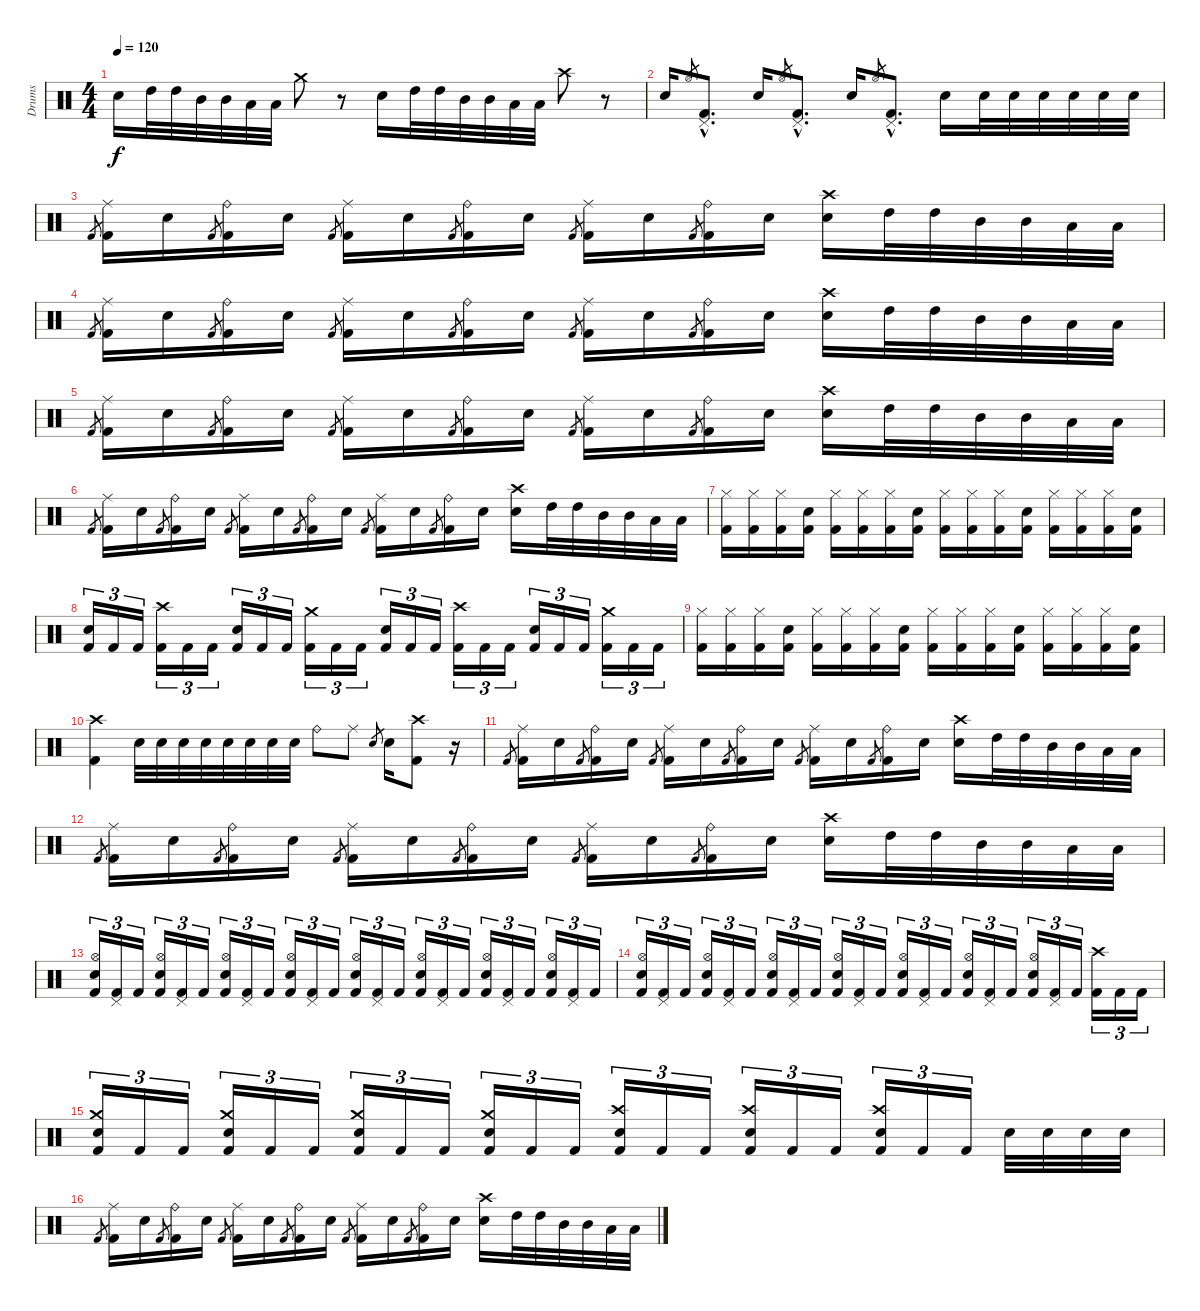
\track ("Drums" "Drums") {instrument percussion}
\staff {score}
\articulation defaults
\ts (4 4)
\tempo 120
\clef neutral
\ks c "Snare (hit) 2".16{dy f} "High Tom (hit)".32 "High Tom (hit)".32 "Mid Tom (hit)".32 "Mid Tom (hit)".32 "Low Tom (hit)".32 "Low Tom (hit)".32 "Crash medium (hit)".8
r.8 "Snare (hit) 2".16 "High Tom (hit)".32 "High Tom (hit)".32 "Mid Tom (hit)".32 "Mid Tom (hit)".32 "Low Tom (hit)".32 "Low Tom (hit)".32 "Crash high (hit)".8 r.8 |
"Snare (hit) 2".16 "Hi-Hat (open)".8{gr} ("Pedal Hi-Hat (hit)"{hac} "Kick (hit) 2"{hac}).8{d} "Snare (hit) 2".16 "Hi-Hat (open)".8{gr} ("Pedal Hi-Hat (hit)"{hac} "Kick (hit) 2"{hac}).8{d} "Snare (hit) 2".16 "Hi-Hat (open)".8{gr} ("Pedal Hi-Hat (hit)"{hac} "Kick (hit) 2"{hac}).8{d} "Snare (hit) 2".16 "Snare (hit) 2".32 "Snare (hit) 2".32 "Snare (hit) 2".32 "Snare (hit) 2".32 "Snare (hit) 2".32 "Snare (hit) 2".32 |
"Kick (hit) 2".8{gr} ("Ride (middle)" "Kick (hit) 2").16 "Snare (hit) 2".16 "Kick (hit) 2".8{gr} ("Ride (bell)" "Kick (hit) 2").16 "Snare (hit) 2".16 "Kick (hit) 2".8{gr} ("Ride (middle)" "Kick (hit) 2").16 "Snare (hit) 2".16 "Kick (hit) 2".8{gr} ("Ride (bell)" "Kick (hit) 2").16 "Snare (hit) 2".16 "Kick (hit) 2".8{gr} ("Ride (middle)" "Kick (hit) 2").16 "Snare (hit) 2".16 "Kick (hit) 2".8{gr} ("Ride (bell)" "Kick (hit) 2").16 "Snare (hit) 2".16 ("Crash high (hit)" "Snare (hit) 2").16 "High Tom (hit)".32 "High Tom (hit)".32 "Mid Tom (hit)".32 "Mid Tom (hit)".32 "Low Tom (hit)".32 "Low Tom (hit)".32 |
"Kick (hit) 2".8{gr} ("Ride (middle)" "Kick (hit) 2").16 "Snare (hit) 2".16 "Kick (hit) 2".8{gr} ("Ride (bell)" "Kick (hit) 2").16 "Snare (hit) 2".16 "Kick (hit) 2".8{gr} ("Ride (middle)" "Kick (hit) 2").16 "Snare (hit) 2".16 "Kick (hit) 2".8{gr} ("Ride (bell)" "Kick (hit) 2").16 "Snare (hit) 2".16 "Kick (hit) 2".8{gr} ("Ride (middle)" "Kick (hit) 2").16 "Snare (hit) 2".16 "Kick (hit) 2".8{gr} ("Ride (bell)" "Kick (hit) 2").16 "Snare (hit) 2".16 ("Crash high (hit)" "Snare (hit) 2").16 "High Tom (hit)".32 "High Tom (hit)".32 "Mid Tom (hit)".32 "Mid Tom (hit)".32 "Low Tom (hit)".32 "Low Tom (hit)".32 |
"Kick (hit) 2".8{gr} ("Ride (middle)" "Kick (hit) 2").16 "Snare (hit) 2".16 "Kick (hit) 2".8{gr} ("Ride (bell)" "Kick (hit) 2").16 "Snare (hit) 2".16 "Kick (hit) 2".8{gr} ("Ride (middle)" "Kick (hit) 2").16 "Snare (hit) 2".16 "Kick (hit) 2".8{gr} ("Ride (bell)" "Kick (hit) 2").16 "Snare (hit) 2".16 "Kick (hit) 2".8{gr} ("Ride (middle)" "Kick (hit) 2").16 "Snare (hit) 2".16 "Kick (hit) 2".8{gr} ("Ride (bell)" "Kick (hit) 2").16 "Snare (hit) 2".16 ("Crash high (hit)" "Snare (hit) 2").16 "High Tom (hit)".32 "High Tom (hit)".32 "Mid Tom (hit)".32 "Mid Tom (hit)".32 "Low Tom (hit)".32 "Low Tom (hit)".32 |
"Kick (hit) 2".8{gr} ("Ride (middle)" "Kick (hit) 2").16 "Snare (hit) 2".16 "Kick (hit) 2".8{gr} ("Ride (bell)" "Kick (hit) 2").16 "Snare (hit) 2".16 "Kick (hit) 2".8{gr} ("Ride (middle)" "Kick (hit) 2").16 "Snare (hit) 2".16 "Kick (hit) 2".8{gr} ("Ride (bell)" "Kick (hit) 2").16 "Snare (hit) 2".16 "Kick (hit) 2".8{gr} ("Ride (middle)" "Kick (hit) 2").16 "Snare (hit) 2".16 "Kick (hit) 2".8{gr} ("Ride (bell)" "Kick (hit) 2").16 "Snare (hit) 2".16 ("Crash high (hit)" "Snare (hit) 2").16 "High Tom (hit)".32 "High Tom (hit)".32 "Mid Tom (hit)".32 "Mid Tom (hit)".32 "Low Tom (hit)".32 "Low Tom (hit)".32 |
("Hi-Hat (closed)" "Kick (hit) 2").16 ("Hi-Hat (closed)" "Kick (hit) 2").16 ("Hi-Hat (closed)" "Kick (hit) 2").16 ("Snare (hit) 2" "Kick (hit) 2").16 ("Hi-Hat (closed)" "Kick (hit) 2").16 ("Hi-Hat (closed)" "Kick (hit) 2").16 ("Hi-Hat (closed)" "Kick (hit) 2").16 ("Snare (hit) 2" "Kick (hit) 2").16 ("Hi-Hat (closed)" "Kick (hit) 2").16 ("Hi-Hat (closed)" "Kick (hit) 2").16 ("Hi-Hat (closed)" "Kick (hit) 2").16 ("Snare (hit) 2" "Kick (hit) 2").16 ("Hi-Hat (closed)" "Kick (hit) 2").16 ("Hi-Hat (closed)" "Kick (hit) 2").16 ("Hi-Hat (closed)" "Kick (hit) 2").16 ("Snare (hit) 2" "Kick (hit) 2").16 |
("Snare (hit) 2" "Kick (hit) 2").16{tu (3 2)} "Kick (hit) 2".16{tu (3 2)} "Kick (hit) 2".16{tu (3 2)} ("Crash high (hit)" "Kick (hit) 2").16{tu (3 2)} "Kick (hit) 2".16{tu (3 2)} "Kick (hit) 2".16{tu (3 2)} ("Snare (hit) 2" "Kick (hit) 2").16{tu (3 2)} "Kick (hit) 2".16{tu (3 2)} "Kick (hit) 2".16{tu (3 2)} ("Crash medium (hit)" "Kick (hit) 2").16{tu (3 2)} "Kick (hit) 2".16{tu (3 2)} "Kick (hit) 2".16{tu (3 2)} ("Snare (hit) 2" "Kick (hit) 2").16{tu (3 2)} "Kick (hit) 2".16{tu (3 2)} "Kick (hit) 2".16{tu (3 2)} ("Crash high (hit)" "Kick (hit) 2").16{tu (3 2)} "Kick (hit) 2".16{tu (3 2)} "Kick (hit) 2".16{tu (3 2)} ("Snare (hit) 2" "Kick (hit) 2").16{tu (3 2)} "Kick (hit) 2".16{tu (3 2)} "Kick (hit) 2".16{tu (3 2)} ("Crash medium (hit)" "Kick (hit) 2").16{tu (3 2)} "Kick (hit) 2".16{tu (3 2)} "Kick (hit) 2".16{tu (3 2)} |
("Hi-Hat (closed)" "Kick (hit) 2").16 ("Hi-Hat (closed)" "Kick (hit) 2").16 ("Hi-Hat (closed)" "Kick (hit) 2").16 ("Snare (hit) 2" "Kick (hit) 2").16 ("Hi-Hat (closed)" "Kick (hit) 2").16 ("Hi-Hat (closed)" "Kick (hit) 2").16 ("Hi-Hat (closed)" "Kick (hit) 2").16 ("Snare (hit) 2" "Kick (hit) 2").16 ("Hi-Hat (closed)" "Kick (hit) 2").16 ("Hi-Hat (closed)" "Kick (hit) 2").16 ("Hi-Hat (closed)" "Kick (hit) 2").16 ("Snare (hit) 2" "Kick (hit) 2").16 ("Hi-Hat (closed)" "Kick (hit) 2").16 ("Hi-Hat (closed)" "Kick (hit) 2").16 ("Hi-Hat (closed)" "Kick (hit) 2").16 ("Snare (hit) 2" "Kick (hit) 2").16 |
("Crash high (hit)" "Kick (hit) 2").4 "Snare (hit) 2".32 "Snare (hit) 2".32 "Snare (hit) 2".32 "Snare (hit) 2".32 "Snare (hit) 2".32 "Snare (hit) 2".32 "Snare (hit) 2".32 "Snare (hit) 2".32 "Ride (bell)".8 "Ride (middle)".8 "Snare (hit) 2".8{gr} "Snare (hit) 2".16 ("Crash high (hit)" "Kick (hit) 2").8 r.16 |
"Kick (hit) 2".8{gr} ("Ride (middle)" "Kick (hit) 2").16 "Snare (hit) 2".16 "Kick (hit) 2".8{gr} ("Ride (bell)" "Kick (hit) 2").16 "Snare (hit) 2".16 "Kick (hit) 2".8{gr} ("Ride (middle)" "Kick (hit) 2").16 "Snare (hit) 2".16 "Kick (hit) 2".8{gr} ("Ride (bell)" "Kick (hit) 2").16 "Snare (hit) 2".16 "Kick (hit) 2".8{gr} ("Ride (middle)" "Kick (hit) 2").16 "Snare (hit) 2".16 "Kick (hit) 2".8{gr} ("Ride (bell)" "Kick (hit) 2").16 "Snare (hit) 2".16 ("Crash high (hit)" "Snare (hit) 2").16 "High Tom (hit)".32 "High Tom (hit)".32 "Mid Tom (hit)".32 "Mid Tom (hit)".32 "Low Tom (hit)".32 "Low Tom (hit)".32 |
"Kick (hit) 2".8{gr} ("Ride (middle)" "Kick (hit) 2").16 "Snare (hit) 2".16 "Kick (hit) 2".8{gr} ("Ride (bell)" "Kick (hit) 2").16 "Snare (hit) 2".16 "Kick (hit) 2".8{gr} ("Ride (middle)" "Kick (hit) 2").16 "Snare (hit) 2".16 "Kick (hit) 2".8{gr} ("Ride (bell)" "Kick (hit) 2").16 "Snare (hit) 2".16 "Kick (hit) 2".8{gr} ("Ride (middle)" "Kick (hit) 2").16 "Snare (hit) 2".16 "Kick (hit) 2".8{gr} ("Ride (bell)" "Kick (hit) 2").16 "Snare (hit) 2".16 ("Crash high (hit)" "Snare (hit) 2").16 "High Tom (hit)".32 "High Tom (hit)".32 "Mid Tom (hit)".32 "Mid Tom (hit)".32 "Low Tom (hit)".32 "Low Tom (hit)".32 |
("Hi-Hat (open)" "Snare (hit) 2" "Kick (hit) 2").16{tu (3 2)} ("Pedal Hi-Hat (hit)" "Kick (hit) 2").16{tu (3 2)} "Kick (hit) 2".16{tu (3 2)} ("Hi-Hat (open)" "Snare (hit) 2" "Kick (hit) 2").16{tu (3 2)} ("Pedal Hi-Hat (hit)" "Kick (hit) 2").16{tu (3 2)} "Kick (hit) 2".16{tu (3 2)} ("Hi-Hat (open)" "Snare (hit) 2" "Kick (hit) 2").16{tu (3 2)} ("Pedal Hi-Hat (hit)" "Kick (hit) 2").16{tu (3 2)} "Kick (hit) 2".16{tu (3 2)} ("Hi-Hat (open)" "Snare (hit) 2" "Kick (hit) 2").16{tu (3 2)} ("Pedal Hi-Hat (hit)" "Kick (hit) 2").16{tu (3 2)} "Kick (hit) 2".16{tu (3 2)} ("Hi-Hat (open)" "Snare (hit) 2" "Kick (hit) 2").16{tu (3 2)} ("Pedal Hi-Hat (hit)" "Kick (hit) 2").16{tu (3 2)} "Kick (hit) 2".16{tu (3 2)} ("Hi-Hat (open)" "Snare (hit) 2" "Kick (hit) 2").16{tu (3 2)} ("Pedal Hi-Hat (hit)" "Kick (hit) 2").16{tu (3 2)} "Kick (hit) 2".16{tu (3 2)} ("Hi-Hat (open)" "Snare (hit) 2" "Kick (hit) 2").16{tu (3 2)} ("Pedal Hi-Hat (hit)" "Kick (hit) 2").16{tu (3 2)} "Kick (hit) 2".16{tu (3 2)} ("Hi-Hat (open)" "Snare (hit) 2" "Kick (hit) 2").16{tu (3 2)} ("Pedal Hi-Hat (hit)" "Kick (hit) 2").16{tu (3 2)} "Kick (hit) 2".16{tu (3 2)} |
("Hi-Hat (open)" "Snare (hit) 2" "Kick (hit) 2").16{tu (3 2)} ("Pedal Hi-Hat (hit)" "Kick (hit) 2").16{tu (3 2)} "Kick (hit) 2".16{tu (3 2)} ("Hi-Hat (open)" "Snare (hit) 2" "Kick (hit) 2").16{tu (3 2)} ("Pedal Hi-Hat (hit)" "Kick (hit) 2").16{tu (3 2)} "Kick (hit) 2".16{tu (3 2)} ("Hi-Hat (open)" "Snare (hit) 2" "Kick (hit) 2").16{tu (3 2)} ("Pedal Hi-Hat (hit)" "Kick (hit) 2").16{tu (3 2)} "Kick (hit) 2".16{tu (3 2)} ("Hi-Hat (open)" "Snare (hit) 2" "Kick (hit) 2").16{tu (3 2)} ("Pedal Hi-Hat (hit)" "Kick (hit) 2").16{tu (3 2)} "Kick (hit) 2".16{tu (3 2)} ("Hi-Hat (open)" "Snare (hit) 2" "Kick (hit) 2").16{tu (3 2)} ("Pedal Hi-Hat (hit)" "Kick (hit) 2").16{tu (3 2)} "Kick (hit) 2".16{tu (3 2)} ("Hi-Hat (open)" "Snare (hit) 2" "Kick (hit) 2").16{tu (3 2)} ("Pedal Hi-Hat (hit)" "Kick (hit) 2").16{tu (3 2)} "Kick (hit) 2".16{tu (3 2)} ("Hi-Hat (open)" "Snare (hit) 2" "Kick (hit) 2").16{tu (3 2)} ("Pedal Hi-Hat (hit)" "Kick (hit) 2").16{tu (3 2)} "Kick (hit) 2".16{tu (3 2)} ("Crash high (hit)" "Kick (hit) 2").16{tu (3 2)} "Kick (hit) 2".16{tu (3 2)} "Kick (hit) 2".16{tu (3 2)} |
("Crash medium (hit)" "Snare (hit) 2" "Kick (hit) 2").16{tu (3 2)} "Kick (hit) 2".16{tu (3 2)} "Kick (hit) 2".16{tu (3 2)} ("Crash medium (hit)" "Snare (hit) 2" "Kick (hit) 2").16{tu (3 2)} "Kick (hit) 2".16{tu (3 2)} "Kick (hit) 2".16{tu (3 2)} ("Crash medium (hit)" "Snare (hit) 2" "Kick (hit) 2").16{tu (3 2)} "Kick (hit) 2".16{tu (3 2)} "Kick (hit) 2".16{tu (3 2)} ("Crash medium (hit)" "Snare (hit) 2" "Kick (hit) 2").16{tu (3 2)} "Kick (hit) 2".16{tu (3 2)} "Kick (hit) 2".16{tu (3 2)} ("Crash high (hit)" "Snare (hit) 2" "Kick (hit) 2").16{tu (3 2)} "Kick (hit) 2".16{tu (3 2)} "Kick (hit) 2".16{tu (3 2)} ("Crash high (hit)" "Snare (hit) 2" "Kick (hit) 2").16{tu (3 2)} "Kick (hit) 2".16{tu (3 2)} "Kick (hit) 2".16{tu (3 2)} ("Crash high (hit)" "Snare (hit) 2" "Kick (hit) 2").16{tu (3 2)} "Kick (hit) 2".16{tu (3 2)} "Kick (hit) 2".16{tu (3 2)} "Snare (hit) 2".32 "Snare (hit) 2".32 "Snare (hit) 2".32 "Snare (hit) 2".32 |
"Kick (hit) 2".8{gr} ("Ride (middle)" "Kick (hit) 2").16 "Snare (hit) 2".16 "Kick (hit) 2".8{gr} ("Ride (bell)" "Kick (hit) 2").16 "Snare (hit) 2".16 "Kick (hit) 2".8{gr} ("Ride (middle)" "Kick (hit) 2").16 "Snare (hit) 2".16 "Kick (hit) 2".8{gr} ("Ride (bell)" "Kick (hit) 2").16 "Snare (hit) 2".16 "Kick (hit) 2".8{gr} ("Ride (middle)" "Kick (hit) 2").16 "Snare (hit) 2".16 "Kick (hit) 2".8{gr} ("Ride (bell)" "Kick (hit) 2").16 "Snare (hit) 2".16 ("Crash high (hit)" "Snare (hit) 2").16 "High Tom (hit)".32 "High Tom (hit)".32 "Mid Tom (hit)".32 "Mid Tom (hit)".32 "Low Tom (hit)".32 "Low Tom (hit)".32
